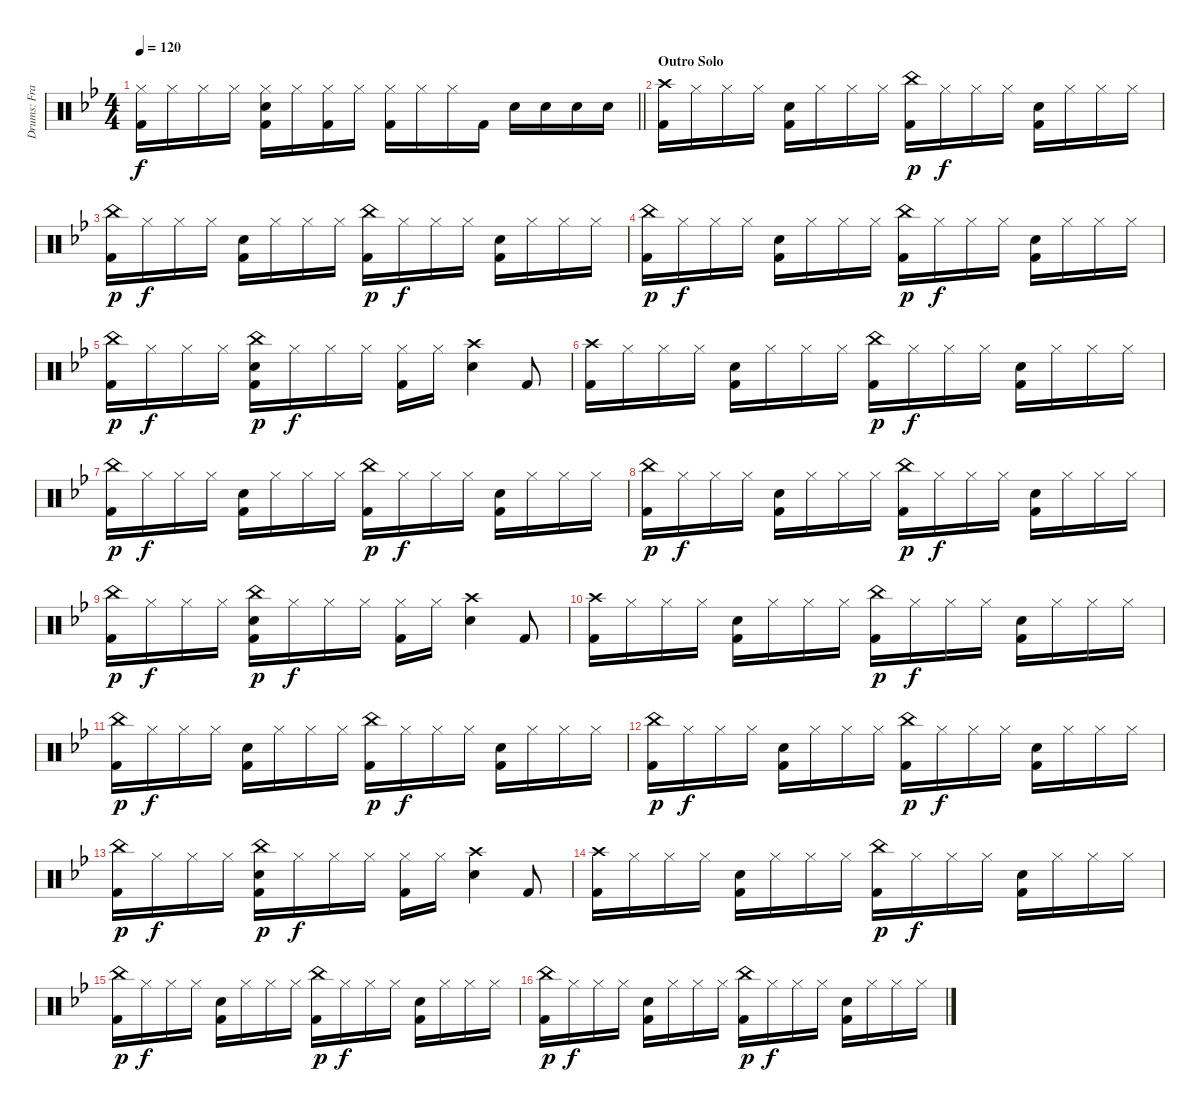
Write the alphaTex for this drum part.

\track ("Drums: Frank" "Drums: Fra") {instrument percussion}
\staff {score}
\articulation defaults
\ts (4 4)
\tempo 120
\clef neutral
\barLineRight lightlight
\ks bb
("Hi-Hat (closed)" "Kick (hit) 2").16{dy f} "Hi-Hat (closed)".16 "Hi-Hat (closed)".16 "Hi-Hat (closed)".16 ("Hi-Hat (closed)" "Electric Snare (hit)" "Kick (hit) 2").16 "Hi-Hat (closed)".16 ("Hi-Hat (closed)" "Kick (hit) 2").16 "Hi-Hat (closed)".16 ("Hi-Hat (closed)" "Kick (hit) 2").16 "Hi-Hat (closed)".16 "Hi-Hat (closed)".16 "Kick (hit) 2".16 "Snare (hit) 2".16 "Snare (hit) 2".16 "Snare (hit) 2".16 "Snare (hit) 2".16 |
\section ("" "Outro Solo")
("Crash high (hit)" "Kick (hit) 2").16 "Hi-Hat (closed)".16 "Hi-Hat (closed)".16 "Hi-Hat (closed)".16 ("Electric Snare (hit)" "Kick (hit) 2").16 "Hi-Hat (closed)".16 "Hi-Hat (closed)".16 "Hi-Hat (closed)".16 ("China (hit)" "Kick (hit) 2").16{dy p} "Hi-Hat (closed)".16{dy f} "Hi-Hat (closed)".16 "Hi-Hat (closed)".16 ("Electric Snare (hit)" "Kick (hit) 2").16 "Hi-Hat (closed)".16 "Hi-Hat (closed)".16 "Hi-Hat (closed)".16 |
("China (hit)" "Kick (hit) 2").16{dy p} "Hi-Hat (closed)".16{dy f} "Hi-Hat (closed)".16 "Hi-Hat (closed)".16 ("Electric Snare (hit)" "Kick (hit) 2").16 "Hi-Hat (closed)".16 "Hi-Hat (closed)".16 "Hi-Hat (closed)".16 ("China (hit)" "Kick (hit) 2").16{dy p} "Hi-Hat (closed)".16{dy f} "Hi-Hat (closed)".16 "Hi-Hat (closed)".16 ("Electric Snare (hit)" "Kick (hit) 2").16 "Hi-Hat (closed)".16 "Hi-Hat (closed)".16 "Hi-Hat (closed)".16 |
("China (hit)" "Kick (hit) 2").16{dy p} "Hi-Hat (closed)".16{dy f} "Hi-Hat (closed)".16 "Hi-Hat (closed)".16 ("Electric Snare (hit)" "Kick (hit) 2").16 "Hi-Hat (closed)".16 "Hi-Hat (closed)".16 "Hi-Hat (closed)".16 ("China (hit)" "Kick (hit) 2").16{dy p} "Hi-Hat (closed)".16{dy f} "Hi-Hat (closed)".16 "Hi-Hat (closed)".16 ("Electric Snare (hit)" "Kick (hit) 2").16 "Hi-Hat (closed)".16 "Hi-Hat (closed)".16 "Hi-Hat (closed)".16 |
("China (hit)" "Kick (hit) 2").16{dy p} "Hi-Hat (closed)".16{dy f} "Hi-Hat (closed)".16 "Hi-Hat (closed)".16 ("China (hit)" "Electric Snare (hit)" "Kick (hit) 2").16{dy p} "Hi-Hat (closed)".16{dy f} "Hi-Hat (closed)".16 "Hi-Hat (closed)".16 ("Hi-Hat (closed)" "Kick (hit) 2").16 "Hi-Hat (closed)".16 ("Crash high (hit)" "Electric Snare (hit)").4 "Kick (hit) 2".8 |
("Crash high (hit)" "Kick (hit) 2").16 "Hi-Hat (closed)".16 "Hi-Hat (closed)".16 "Hi-Hat (closed)".16 ("Electric Snare (hit)" "Kick (hit) 2").16 "Hi-Hat (closed)".16 "Hi-Hat (closed)".16 "Hi-Hat (closed)".16 ("China (hit)" "Kick (hit) 2").16{dy p} "Hi-Hat (closed)".16{dy f} "Hi-Hat (closed)".16 "Hi-Hat (closed)".16 ("Electric Snare (hit)" "Kick (hit) 2").16 "Hi-Hat (closed)".16 "Hi-Hat (closed)".16 "Hi-Hat (closed)".16 |
("China (hit)" "Kick (hit) 2").16{dy p} "Hi-Hat (closed)".16{dy f} "Hi-Hat (closed)".16 "Hi-Hat (closed)".16 ("Electric Snare (hit)" "Kick (hit) 2").16 "Hi-Hat (closed)".16 "Hi-Hat (closed)".16 "Hi-Hat (closed)".16 ("China (hit)" "Kick (hit) 2").16{dy p} "Hi-Hat (closed)".16{dy f} "Hi-Hat (closed)".16 "Hi-Hat (closed)".16 ("Electric Snare (hit)" "Kick (hit) 2").16 "Hi-Hat (closed)".16 "Hi-Hat (closed)".16 "Hi-Hat (closed)".16 |
("China (hit)" "Kick (hit) 2").16{dy p} "Hi-Hat (closed)".16{dy f} "Hi-Hat (closed)".16 "Hi-Hat (closed)".16 ("Electric Snare (hit)" "Kick (hit) 2").16 "Hi-Hat (closed)".16 "Hi-Hat (closed)".16 "Hi-Hat (closed)".16 ("China (hit)" "Kick (hit) 2").16{dy p} "Hi-Hat (closed)".16{dy f} "Hi-Hat (closed)".16 "Hi-Hat (closed)".16 ("Electric Snare (hit)" "Kick (hit) 2").16 "Hi-Hat (closed)".16 "Hi-Hat (closed)".16 "Hi-Hat (closed)".16 |
("China (hit)" "Kick (hit) 2").16{dy p} "Hi-Hat (closed)".16{dy f} "Hi-Hat (closed)".16 "Hi-Hat (closed)".16 ("China (hit)" "Electric Snare (hit)" "Kick (hit) 2").16{dy p} "Hi-Hat (closed)".16{dy f} "Hi-Hat (closed)".16 "Hi-Hat (closed)".16 ("Hi-Hat (closed)" "Kick (hit) 2").16 "Hi-Hat (closed)".16 ("Crash high (hit)" "Electric Snare (hit)").4 "Kick (hit) 2".8 |
("Crash high (hit)" "Kick (hit) 2").16 "Hi-Hat (closed)".16 "Hi-Hat (closed)".16 "Hi-Hat (closed)".16 ("Electric Snare (hit)" "Kick (hit) 2").16 "Hi-Hat (closed)".16 "Hi-Hat (closed)".16 "Hi-Hat (closed)".16 ("China (hit)" "Kick (hit) 2").16{dy p} "Hi-Hat (closed)".16{dy f} "Hi-Hat (closed)".16 "Hi-Hat (closed)".16 ("Electric Snare (hit)" "Kick (hit) 2").16 "Hi-Hat (closed)".16 "Hi-Hat (closed)".16 "Hi-Hat (closed)".16 |
("China (hit)" "Kick (hit) 2").16{dy p} "Hi-Hat (closed)".16{dy f} "Hi-Hat (closed)".16 "Hi-Hat (closed)".16 ("Electric Snare (hit)" "Kick (hit) 2").16 "Hi-Hat (closed)".16 "Hi-Hat (closed)".16 "Hi-Hat (closed)".16 ("China (hit)" "Kick (hit) 2").16{dy p} "Hi-Hat (closed)".16{dy f} "Hi-Hat (closed)".16 "Hi-Hat (closed)".16 ("Electric Snare (hit)" "Kick (hit) 2").16 "Hi-Hat (closed)".16 "Hi-Hat (closed)".16 "Hi-Hat (closed)".16 |
("China (hit)" "Kick (hit) 2").16{dy p} "Hi-Hat (closed)".16{dy f} "Hi-Hat (closed)".16 "Hi-Hat (closed)".16 ("Electric Snare (hit)" "Kick (hit) 2").16 "Hi-Hat (closed)".16 "Hi-Hat (closed)".16 "Hi-Hat (closed)".16 ("China (hit)" "Kick (hit) 2").16{dy p} "Hi-Hat (closed)".16{dy f} "Hi-Hat (closed)".16 "Hi-Hat (closed)".16 ("Electric Snare (hit)" "Kick (hit) 2").16 "Hi-Hat (closed)".16 "Hi-Hat (closed)".16 "Hi-Hat (closed)".16 |
("China (hit)" "Kick (hit) 2").16{dy p} "Hi-Hat (closed)".16{dy f} "Hi-Hat (closed)".16 "Hi-Hat (closed)".16 ("China (hit)" "Electric Snare (hit)" "Kick (hit) 2").16{dy p} "Hi-Hat (closed)".16{dy f} "Hi-Hat (closed)".16 "Hi-Hat (closed)".16 ("Hi-Hat (closed)" "Kick (hit) 2").16 "Hi-Hat (closed)".16 ("Crash high (hit)" "Electric Snare (hit)").4 "Kick (hit) 2".8 |
("Crash high (hit)" "Kick (hit) 2").16 "Hi-Hat (closed)".16 "Hi-Hat (closed)".16 "Hi-Hat (closed)".16 ("Electric Snare (hit)" "Kick (hit) 2").16 "Hi-Hat (closed)".16 "Hi-Hat (closed)".16 "Hi-Hat (closed)".16 ("China (hit)" "Kick (hit) 2").16{dy p} "Hi-Hat (closed)".16{dy f} "Hi-Hat (closed)".16 "Hi-Hat (closed)".16 ("Electric Snare (hit)" "Kick (hit) 2").16 "Hi-Hat (closed)".16 "Hi-Hat (closed)".16 "Hi-Hat (closed)".16 |
("China (hit)" "Kick (hit) 2").16{dy p} "Hi-Hat (closed)".16{dy f} "Hi-Hat (closed)".16 "Hi-Hat (closed)".16 ("Electric Snare (hit)" "Kick (hit) 2").16 "Hi-Hat (closed)".16 "Hi-Hat (closed)".16 "Hi-Hat (closed)".16 ("China (hit)" "Kick (hit) 2").16{dy p} "Hi-Hat (closed)".16{dy f} "Hi-Hat (closed)".16 "Hi-Hat (closed)".16 ("Electric Snare (hit)" "Kick (hit) 2").16 "Hi-Hat (closed)".16 "Hi-Hat (closed)".16 "Hi-Hat (closed)".16 |
("China (hit)" "Kick (hit) 2").16{dy p} "Hi-Hat (closed)".16{dy f} "Hi-Hat (closed)".16 "Hi-Hat (closed)".16 ("Electric Snare (hit)" "Kick (hit) 2").16 "Hi-Hat (closed)".16 "Hi-Hat (closed)".16 "Hi-Hat (closed)".16 ("China (hit)" "Kick (hit) 2").16{dy p} "Hi-Hat (closed)".16{dy f} "Hi-Hat (closed)".16 "Hi-Hat (closed)".16 ("Electric Snare (hit)" "Kick (hit) 2").16 "Hi-Hat (closed)".16 "Hi-Hat (closed)".16 "Hi-Hat (closed)".16
